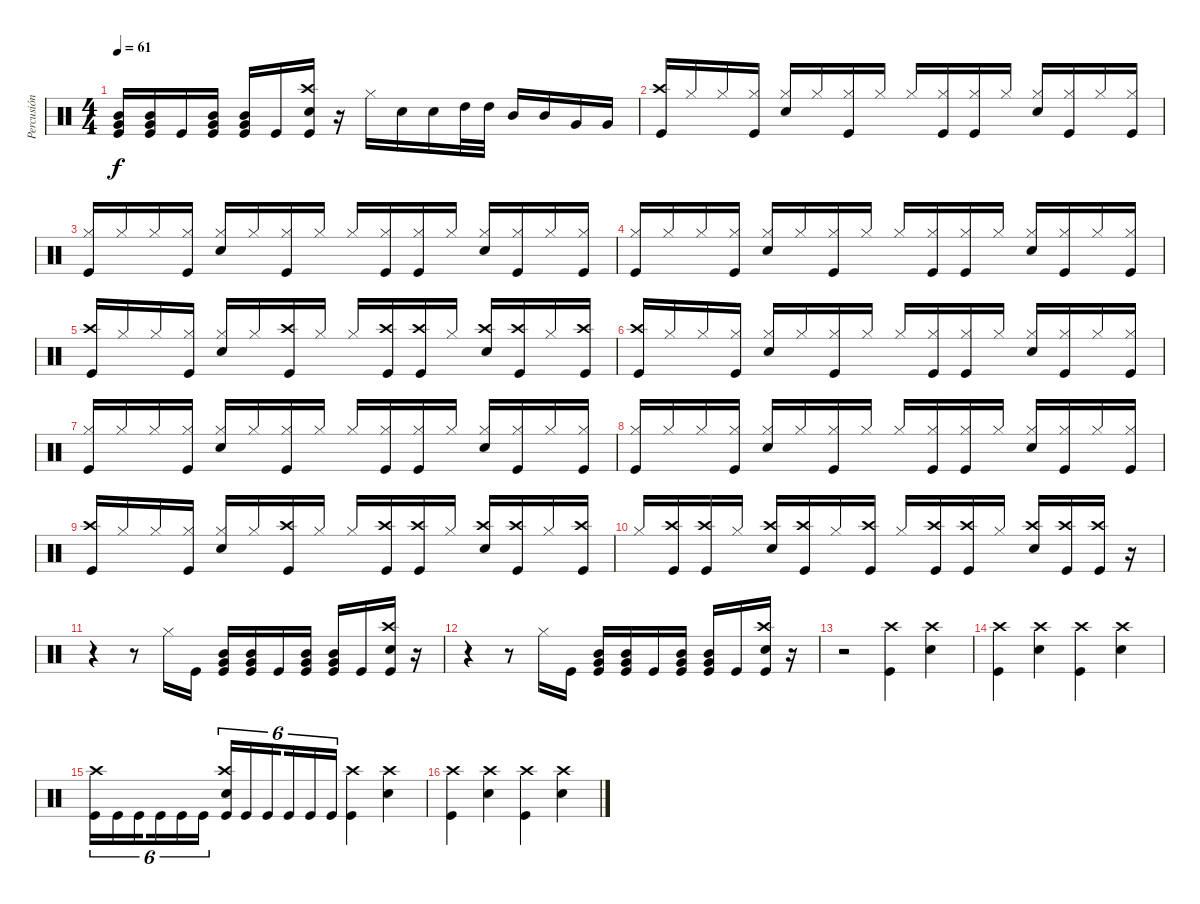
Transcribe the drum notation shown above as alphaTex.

\track ("Percusión" "Percusión") {instrument percussion}
\staff {score}
\articulation defaults
\ts (4 4)
\tempo 61
\clef neutral
\ks c
("Kick (hit)" "Very Low Tom (hit)" "Mid Tom (hit)").16{dy f} ("Kick (hit)" "Very Low Tom (hit)" "Mid Tom (hit)").16 "Kick (hit)".16 ("Kick (hit)" "Very Low Tom (hit)" "Mid Tom (hit)").16 ("Very Low Tom (hit)" "Kick (hit)" "Mid Tom (hit)").16{beam Up} "Kick (hit)".16{beam Up} ("Kick (hit)" "Crash high (hit)" "Snare (hit) 2").16{beam Up} r.16 "Hi-Hat (closed)".16 "Snare (hit) 2".16 "Snare (hit) 2".16 "High Tom (hit)".32 "High Tom (hit)".32 "Mid Tom (hit)".16 "Mid Tom (hit)".16 "Very Low Tom (hit)".16 "Very Low Tom (hit)".16 |
("Crash high (hit)" "Kick (hit)").16{beam Up} "Hi-Hat (closed)".16{beam Up} "Hi-Hat (closed)".16{beam Up} ("Hi-Hat (closed)" "Kick (hit)").16{beam Up} ("Hi-Hat (closed)" "Snare (hit) 2").16{beam Up} "Hi-Hat (closed)".16{beam Up} ("Hi-Hat (closed)" "Kick (hit)").16{beam Up} "Hi-Hat (closed)".16{beam Up} "Hi-Hat (closed)".16{beam Up} ("Hi-Hat (closed)" "Kick (hit)").16{beam Up} ("Hi-Hat (closed)" "Kick (hit)").16{beam Up} "Hi-Hat (closed)".16{beam Up} ("Hi-Hat (closed)" "Snare (hit) 2").16{beam Up} ("Hi-Hat (closed)" "Kick (hit)").16{beam Up} "Hi-Hat (closed)".16{beam Up} ("Hi-Hat (closed)" "Kick (hit)").16{beam Up} |
("Hi-Hat (closed)" "Kick (hit)").16{beam Up} "Hi-Hat (closed)".16{beam Up} "Hi-Hat (closed)".16{beam Up} ("Hi-Hat (closed)" "Kick (hit)").16{beam Up} ("Hi-Hat (closed)" "Snare (hit) 2").16{beam Up} "Hi-Hat (closed)".16{beam Up} ("Hi-Hat (closed)" "Kick (hit)").16{beam Up} "Hi-Hat (closed)".16{beam Up} "Hi-Hat (closed)".16{beam Up} ("Hi-Hat (closed)" "Kick (hit)").16{beam Up} ("Hi-Hat (closed)" "Kick (hit)").16{beam Up} "Hi-Hat (closed)".16{beam Up} ("Hi-Hat (closed)" "Snare (hit) 2").16{beam Up} ("Hi-Hat (closed)" "Kick (hit)").16{beam Up} "Hi-Hat (closed)".16{beam Up} ("Hi-Hat (closed)" "Kick (hit)").16{beam Up} |
("Hi-Hat (closed)" "Kick (hit)").16{beam Up} "Hi-Hat (closed)".16{beam Up} "Hi-Hat (closed)".16{beam Up} ("Hi-Hat (closed)" "Kick (hit)").16{beam Up} ("Hi-Hat (closed)" "Snare (hit) 2").16{beam Up} "Hi-Hat (closed)".16{beam Up} ("Hi-Hat (closed)" "Kick (hit)").16{beam Up} "Hi-Hat (closed)".16{beam Up} "Hi-Hat (closed)".16{beam Up} ("Hi-Hat (closed)" "Kick (hit)").16{beam Up} ("Hi-Hat (closed)" "Kick (hit)").16{beam Up} "Hi-Hat (closed)".16{beam Up} ("Hi-Hat (closed)" "Snare (hit) 2").16{beam Up} ("Hi-Hat (closed)" "Kick (hit)").16{beam Up} "Hi-Hat (closed)".16{beam Up} ("Hi-Hat (closed)" "Kick (hit)").16{beam Up} |
("Crash high (hit)" "Kick (hit)").16{beam Up} "Hi-Hat (closed)".16{beam Up} "Hi-Hat (closed)".16{beam Up} ("Hi-Hat (closed)" "Kick (hit)").16{beam Up} ("Hi-Hat (closed)" "Snare (hit) 2").16{beam Up} "Hi-Hat (closed)".16{beam Up} ("Crash high (hit)" "Kick (hit)").16{beam Up} "Hi-Hat (closed)".16{beam Up} "Hi-Hat (closed)".16{beam Up} ("Crash high (hit)" "Kick (hit)").16{beam Up} ("Crash high (hit)" "Kick (hit)").16{beam Up} "Hi-Hat (closed)".16{beam Up} ("Crash high (hit)" "Snare (hit) 2").16{beam Up} ("Crash high (hit)" "Kick (hit)").16{beam Up} "Hi-Hat (closed)".16{beam Up} ("Crash high (hit)" "Kick (hit)").16{beam Up} |
("Crash high (hit)" "Kick (hit)").16{beam Up} "Hi-Hat (closed)".16{beam Up} "Hi-Hat (closed)".16{beam Up} ("Hi-Hat (closed)" "Kick (hit)").16{beam Up} ("Hi-Hat (closed)" "Snare (hit) 2").16{beam Up} "Hi-Hat (closed)".16{beam Up} ("Hi-Hat (closed)" "Kick (hit)").16{beam Up} "Hi-Hat (closed)".16{beam Up} "Hi-Hat (closed)".16{beam Up} ("Hi-Hat (closed)" "Kick (hit)").16{beam Up} ("Hi-Hat (closed)" "Kick (hit)").16{beam Up} "Hi-Hat (closed)".16{beam Up} ("Hi-Hat (closed)" "Snare (hit) 2").16{beam Up} ("Hi-Hat (closed)" "Kick (hit)").16{beam Up} "Hi-Hat (closed)".16{beam Up} ("Hi-Hat (closed)" "Kick (hit)").16{beam Up} |
("Hi-Hat (closed)" "Kick (hit)").16{beam Up} "Hi-Hat (closed)".16{beam Up} "Hi-Hat (closed)".16{beam Up} ("Hi-Hat (closed)" "Kick (hit)").16{beam Up} ("Hi-Hat (closed)" "Snare (hit) 2").16{beam Up} "Hi-Hat (closed)".16{beam Up} ("Hi-Hat (closed)" "Kick (hit)").16{beam Up} "Hi-Hat (closed)".16{beam Up} "Hi-Hat (closed)".16{beam Up} ("Hi-Hat (closed)" "Kick (hit)").16{beam Up} ("Hi-Hat (closed)" "Kick (hit)").16{beam Up} "Hi-Hat (closed)".16{beam Up} ("Hi-Hat (closed)" "Snare (hit) 2").16{beam Up} ("Hi-Hat (closed)" "Kick (hit)").16{beam Up} "Hi-Hat (closed)".16{beam Up} ("Kick (hit)" "Hi-Hat (closed)").16{beam Up} |
("Hi-Hat (closed)" "Kick (hit)").16{beam Up} "Hi-Hat (closed)".16{beam Up} "Hi-Hat (closed)".16{beam Up} ("Hi-Hat (closed)" "Kick (hit)").16{beam Up} ("Hi-Hat (closed)" "Snare (hit) 2").16{beam Up} "Hi-Hat (closed)".16{beam Up} ("Hi-Hat (closed)" "Kick (hit)").16{beam Up} "Hi-Hat (closed)".16{beam Up} "Hi-Hat (closed)".16{beam Up} ("Hi-Hat (closed)" "Kick (hit)").16{beam Up} ("Hi-Hat (closed)" "Kick (hit)").16{beam Up} "Hi-Hat (closed)".16{beam Up} ("Hi-Hat (closed)" "Snare (hit) 2").16{beam Up} ("Hi-Hat (closed)" "Kick (hit)").16{beam Up} "Hi-Hat (closed)".16{beam Up} ("Hi-Hat (closed)" "Kick (hit)").16{beam Up} |
("Crash high (hit)" "Kick (hit)").16{beam Up} "Hi-Hat (closed)".16{beam Up} "Hi-Hat (closed)".16{beam Up} ("Hi-Hat (closed)" "Kick (hit)").16{beam Up} ("Hi-Hat (closed)" "Snare (hit) 2").16{beam Up} "Hi-Hat (closed)".16{beam Up} ("Crash high (hit)" "Kick (hit)").16{beam Up} "Hi-Hat (closed)".16{beam Up} "Hi-Hat (closed)".16{beam Up} ("Crash high (hit)" "Kick (hit)").16{beam Up} ("Crash high (hit)" "Kick (hit)").16{beam Up} "Hi-Hat (closed)".16{beam Up} ("Crash high (hit)" "Snare (hit) 2").16{beam Up} ("Crash high (hit)" "Kick (hit)").16{beam Up} "Hi-Hat (closed)".16{beam Up} ("Crash high (hit)" "Kick (hit)").16{beam Up} |
"Hi-Hat (closed)".16{beam Up} ("Crash high (hit)" "Kick (hit)").16{beam Up} ("Crash high (hit)" "Kick (hit)").16{beam Up} "Hi-Hat (closed)".16{beam Up} ("Crash high (hit)" "Snare (hit) 2").16{beam Up} ("Crash high (hit)" "Kick (hit)").16{beam Up} "Hi-Hat (closed)".16{beam Up} ("Crash high (hit)" "Kick (hit)").16{beam Up} "Hi-Hat (closed)".16{beam Up} ("Crash high (hit)" "Kick (hit)").16{beam Up} ("Crash high (hit)" "Kick (hit)").16{beam Up} "Hi-Hat (closed)".16{beam Up} ("Crash high (hit)" "Snare (hit) 2").16{beam Up} ("Crash high (hit)" "Kick (hit)").16{beam Up} ("Crash high (hit)" "Kick (hit)").16{beam Up} r.16 |
r.4 r.8 "Hi-Hat (closed)".16 "Kick (hit)".16 ("Kick (hit)" "Very Low Tom (hit)" "Mid Tom (hit)").16 ("Kick (hit)" "Very Low Tom (hit)" "Mid Tom (hit)").16 "Kick (hit)".16 ("Kick (hit)" "Very Low Tom (hit)" "Mid Tom (hit)").16 ("Very Low Tom (hit)" "Kick (hit)" "Mid Tom (hit)").16{beam Up} "Kick (hit)".16{beam Up} ("Kick (hit)" "Crash high (hit)" "Snare (hit) 2").16{beam Up} r.16 |
r.4 r.8 "Hi-Hat (closed)".16 "Kick (hit)".16 ("Kick (hit)" "Very Low Tom (hit)" "Mid Tom (hit)").16 ("Kick (hit)" "Very Low Tom (hit)" "Mid Tom (hit)").16 "Kick (hit)".16 ("Kick (hit)" "Very Low Tom (hit)" "Mid Tom (hit)").16 ("Very Low Tom (hit)" "Kick (hit)" "Mid Tom (hit)").16{beam Up} "Kick (hit)".16{beam Up} ("Kick (hit)" "Crash high (hit)" "Snare (hit) 2").16{beam Up} r.16 |
r.2 ("Crash high (hit)" "Kick (hit)").4 ("Crash high (hit)" "Snare (hit) 2").4 |
("Crash high (hit)" "Kick (hit)").4 ("Crash high (hit)" "Snare (hit) 2").4 ("Crash high (hit)" "Kick (hit)").4 ("Crash high (hit)" "Snare (hit) 2").4 |
("Crash high (hit)" "Kick (hit)").16{tu (6 4) beam merge} "Kick (hit)".16{tu (6 4) beam merge} "Kick (hit)".16{tu (6 4) beam splitsecondary} "Kick (hit)".16{tu (6 4) beam merge} "Kick (hit)".16{tu (6 4) beam merge} "Kick (hit)".16{tu (6 4) beam split} ("Snare (hit) 2" "Crash high (hit)" "Kick (hit)").16{tu (6 4) beam merge} "Kick (hit)".16{tu (6 4) beam merge} "Kick (hit)".16{tu (6 4) beam splitsecondary} "Kick (hit)".16{tu (6 4) beam merge} "Kick (hit)".16{tu (6 4) beam merge} "Kick (hit)".16{tu (6 4)} ("Crash high (hit)" "Kick (hit)").4 ("Crash high (hit)" "Snare (hit) 2").4 |
("Crash high (hit)" "Kick (hit)").4 ("Crash high (hit)" "Snare (hit) 2").4 ("Crash high (hit)" "Kick (hit)").4 ("Crash high (hit)" "Snare (hit) 2").4
